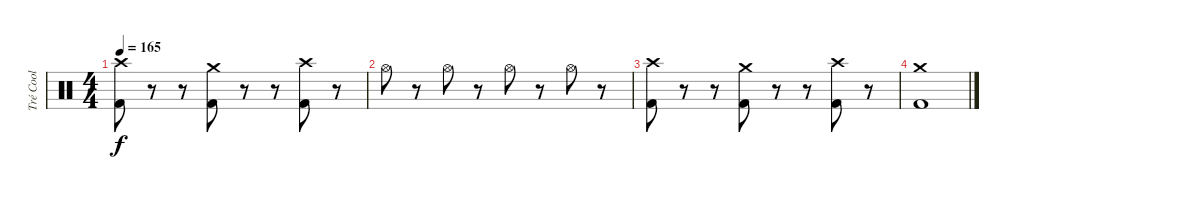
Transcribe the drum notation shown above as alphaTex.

\track ("Tré Cool" "Tré Cool") {instrument percussion}
\staff {score}
\articulation defaults
\ts (4 4)
\tempo 165
\clef neutral
\ks c
("Crash high (hit)" "Kick (hit) 2").8{dy f} r.8 r.8 ("Crash medium (hit)" "Kick (hit) 2").8 r.8 r.8 ("Crash high (hit)" "Kick (hit) 2").8 r.8 |
"Hi-Hat (open)".8 r.8 "Hi-Hat (open)".8 r.8 "Hi-Hat (open)".8 r.8 "Hi-Hat (open)".8 r.8 |
("Crash high (hit)" "Kick (hit) 2").8 r.8 r.8 ("Crash medium (hit)" "Kick (hit) 2").8 r.8 r.8 ("Crash high (hit)" "Kick (hit) 2").8 r.8 |
("Crash medium (hit)" "Kick (hit) 2").1
